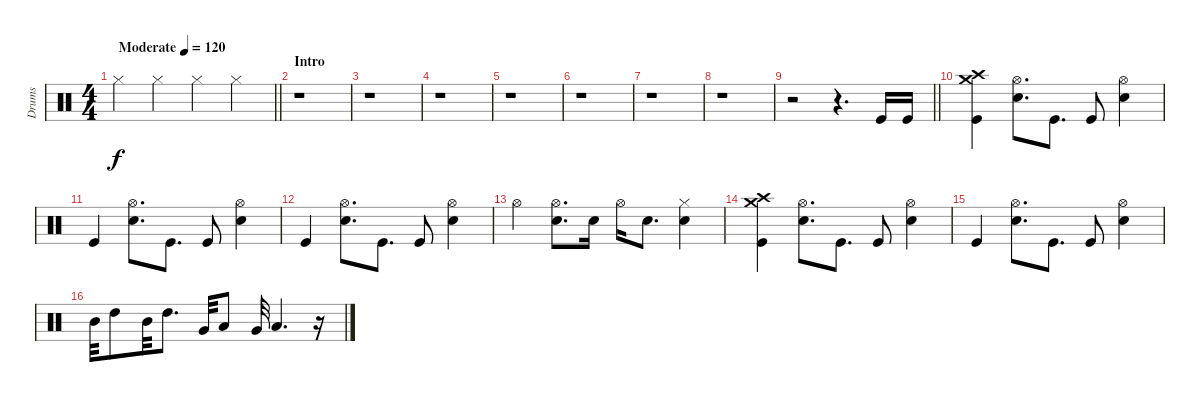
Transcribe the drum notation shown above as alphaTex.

\track ("Drums" "Drums") {instrument percussion}
\staff {score}
\articulation defaults
\ts (4 4)
\tempo (120 "Moderate")
\clef neutral
\barLineRight lightlight
\ks c "Hi-Hat (closed)".4{dy f} "Hi-Hat (closed)".4 "Hi-Hat (closed)".4 "Hi-Hat (closed)".4
|
\section ("" "Intro")
r.1 |
r.1 |
r.1 |
r.1 |
r.1 |
r.1 |
r.1 |
\barLineRight lightlight
r.2 r.4{d} "Kick (hit)".16 "Kick (hit)".16 |
("Crash high (hit)" "Crash medium (hit)" "Kick (hit)").4 ("Hi-Hat (open)" "Electric Snare (hit)").8{d} "Kick (hit)".8{d} "Kick (hit)".8 ("Hi-Hat (open)" "Electric Snare (hit)").4 |
"Kick (hit)".4 ("Hi-Hat (open)" "Electric Snare (hit)").8{d} "Kick (hit)".8{d} "Kick (hit)".8 ("Hi-Hat (open)" "Electric Snare (hit)").4 |
"Kick (hit)".4 ("Hi-Hat (open)" "Electric Snare (hit)").8{d} "Kick (hit)".8{d} "Kick (hit)".8 ("Hi-Hat (open)" "Electric Snare (hit)").4 |
"Hi-Hat (open)".4 ("Hi-Hat (open)" "Electric Snare (hit)").8{d} "Electric Snare (hit)".16 "Hi-Hat (open)".16 "Electric Snare (hit)".8{d} ("Hi-Hat (closed)" "Electric Snare (hit)").4 |
("Crash high (hit)" "Crash medium (hit)" "Kick (hit)").4 ("Hi-Hat (open)" "Electric Snare (hit)").8{d} "Kick (hit)".8{d} "Kick (hit)".8 ("Hi-Hat (open)" "Electric Snare (hit)").4 |
"Kick (hit)".4 ("Hi-Hat (open)" "Electric Snare (hit)").8{d} "Kick (hit)".8{d} "Kick (hit)".8 ("Hi-Hat (open)" "Electric Snare (hit)").4 |
"Mid Tom (hit)".32 "High Tom (hit)".8 "Mid Tom (hit)".32 "High Tom (hit)".8{d} "Very Low Tom (hit)".32 "Low Tom (hit)".8 "Very Low Tom (hit)".32 "Low Floor Tom (hit)".4{d} r.16
